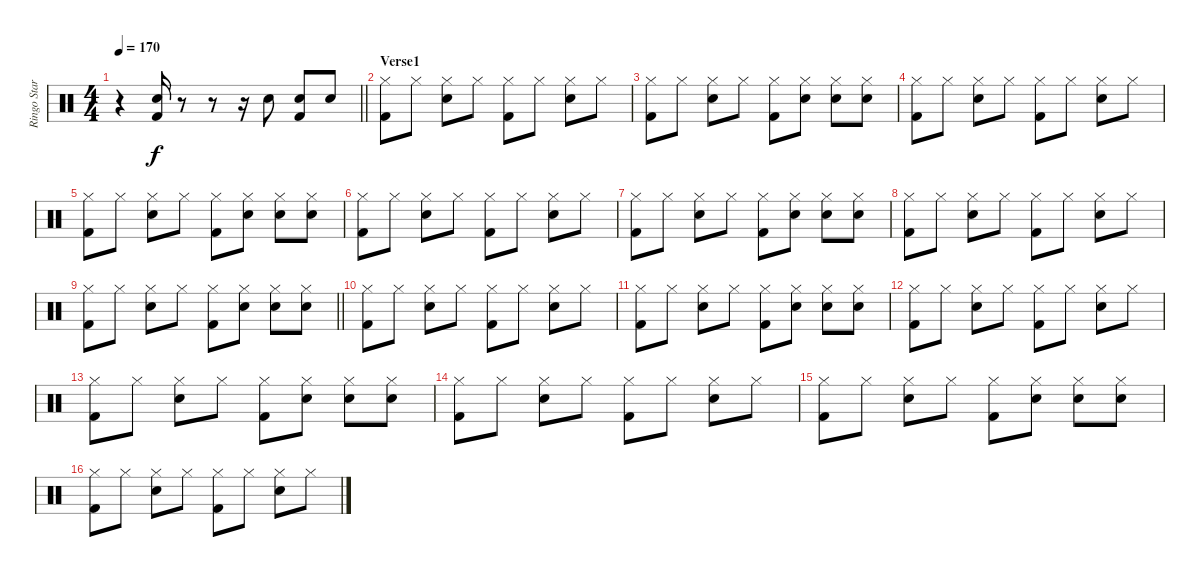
\track ("Ringo Star (Thomas)" "Ringo Star") {instrument percussion}
\staff {score}
\articulation defaults
\ts (4 4)
\tempo 170
\clef neutral
\barLineRight lightlight
\ks c
r.4{dy f} ("Snare (hit) 2" "Kick (hit) 2").16 r.8 r.8 r.16 "Snare (hit) 2".8 ("Snare (hit) 2" "Kick (hit) 2").8 "Snare (hit) 2".8 |
\section ("" "Verse1")
("Hi-Hat (closed)" "Kick (hit) 2").8 "Hi-Hat (closed)".8 ("Hi-Hat (closed)" "Snare (hit) 2").8 "Hi-Hat (closed)".8 ("Hi-Hat (closed)" "Kick (hit) 2").8 "Hi-Hat (closed)".8 ("Hi-Hat (closed)" "Snare (hit) 2").8 "Hi-Hat (closed)".8 |
("Hi-Hat (closed)" "Kick (hit) 2").8 "Hi-Hat (closed)".8 ("Hi-Hat (closed)" "Snare (hit) 2").8 "Hi-Hat (closed)".8 ("Hi-Hat (closed)" "Kick (hit) 2").8 ("Hi-Hat (closed)" "Snare (hit) 2").8 ("Hi-Hat (closed)" "Snare (hit) 2").8 ("Hi-Hat (closed)" "Snare (hit) 2").8 |
("Hi-Hat (closed)" "Kick (hit) 2").8 "Hi-Hat (closed)".8 ("Hi-Hat (closed)" "Snare (hit) 2").8 "Hi-Hat (closed)".8 ("Hi-Hat (closed)" "Kick (hit) 2").8 "Hi-Hat (closed)".8 ("Hi-Hat (closed)" "Snare (hit) 2").8 "Hi-Hat (closed)".8 |
("Hi-Hat (closed)" "Kick (hit) 2").8 "Hi-Hat (closed)".8 ("Hi-Hat (closed)" "Snare (hit) 2").8 "Hi-Hat (closed)".8 ("Hi-Hat (closed)" "Kick (hit) 2").8 ("Hi-Hat (closed)" "Snare (hit) 2").8 ("Hi-Hat (closed)" "Snare (hit) 2").8 ("Hi-Hat (closed)" "Snare (hit) 2").8 |
("Hi-Hat (closed)" "Kick (hit) 2").8 "Hi-Hat (closed)".8 ("Hi-Hat (closed)" "Snare (hit) 2").8 "Hi-Hat (closed)".8 ("Hi-Hat (closed)" "Kick (hit) 2").8 "Hi-Hat (closed)".8 ("Hi-Hat (closed)" "Snare (hit) 2").8 "Hi-Hat (closed)".8 |
("Hi-Hat (closed)" "Kick (hit) 2").8 "Hi-Hat (closed)".8 ("Hi-Hat (closed)" "Snare (hit) 2").8 "Hi-Hat (closed)".8 ("Hi-Hat (closed)" "Kick (hit) 2").8 ("Hi-Hat (closed)" "Snare (hit) 2").8 ("Hi-Hat (closed)" "Snare (hit) 2").8 ("Hi-Hat (closed)" "Snare (hit) 2").8 |
("Hi-Hat (closed)" "Kick (hit) 2").8 "Hi-Hat (closed)".8 ("Hi-Hat (closed)" "Snare (hit) 2").8 "Hi-Hat (closed)".8 ("Hi-Hat (closed)" "Kick (hit) 2").8 "Hi-Hat (closed)".8 ("Hi-Hat (closed)" "Snare (hit) 2").8 "Hi-Hat (closed)".8 |
\barLineRight lightlight
("Hi-Hat (closed)" "Kick (hit) 2").8 "Hi-Hat (closed)".8 ("Hi-Hat (closed)" "Snare (hit) 2").8 "Hi-Hat (closed)".8 ("Hi-Hat (closed)" "Kick (hit) 2").8 ("Hi-Hat (closed)" "Snare (hit) 2").8 ("Hi-Hat (closed)" "Snare (hit) 2").8 ("Hi-Hat (closed)" "Snare (hit) 2").8 |
("Hi-Hat (closed)" "Kick (hit) 2").8 "Hi-Hat (closed)".8 ("Hi-Hat (closed)" "Snare (hit) 2").8 "Hi-Hat (closed)".8 ("Hi-Hat (closed)" "Kick (hit) 2").8 "Hi-Hat (closed)".8 ("Hi-Hat (closed)" "Snare (hit) 2").8 "Hi-Hat (closed)".8 |
("Hi-Hat (closed)" "Kick (hit) 2").8 "Hi-Hat (closed)".8 ("Hi-Hat (closed)" "Snare (hit) 2").8 "Hi-Hat (closed)".8 ("Hi-Hat (closed)" "Kick (hit) 2").8 ("Hi-Hat (closed)" "Snare (hit) 2").8 ("Hi-Hat (closed)" "Snare (hit) 2").8 ("Hi-Hat (closed)" "Snare (hit) 2").8 |
("Hi-Hat (closed)" "Kick (hit) 2").8 "Hi-Hat (closed)".8 ("Hi-Hat (closed)" "Snare (hit) 2").8 "Hi-Hat (closed)".8 ("Hi-Hat (closed)" "Kick (hit) 2").8 "Hi-Hat (closed)".8 ("Hi-Hat (closed)" "Snare (hit) 2").8 "Hi-Hat (closed)".8 |
("Hi-Hat (closed)" "Kick (hit) 2").8 "Hi-Hat (closed)".8 ("Hi-Hat (closed)" "Snare (hit) 2").8 "Hi-Hat (closed)".8 ("Hi-Hat (closed)" "Kick (hit) 2").8 ("Hi-Hat (closed)" "Snare (hit) 2").8 ("Hi-Hat (closed)" "Snare (hit) 2").8 ("Hi-Hat (closed)" "Snare (hit) 2").8 |
("Hi-Hat (closed)" "Kick (hit) 2").8 "Hi-Hat (closed)".8 ("Hi-Hat (closed)" "Snare (hit) 2").8 "Hi-Hat (closed)".8 ("Hi-Hat (closed)" "Kick (hit) 2").8 "Hi-Hat (closed)".8 ("Hi-Hat (closed)" "Snare (hit) 2").8 "Hi-Hat (closed)".8 |
("Hi-Hat (closed)" "Kick (hit) 2").8 "Hi-Hat (closed)".8 ("Hi-Hat (closed)" "Snare (hit) 2").8 "Hi-Hat (closed)".8 ("Hi-Hat (closed)" "Kick (hit) 2").8 ("Hi-Hat (closed)" "Snare (hit) 2").8 ("Hi-Hat (closed)" "Snare (hit) 2").8 ("Hi-Hat (closed)" "Snare (hit) 2").8 |
("Hi-Hat (closed)" "Kick (hit) 2").8 "Hi-Hat (closed)".8 ("Hi-Hat (closed)" "Snare (hit) 2").8 "Hi-Hat (closed)".8 ("Hi-Hat (closed)" "Kick (hit) 2").8 "Hi-Hat (closed)".8 ("Hi-Hat (closed)" "Snare (hit) 2").8 "Hi-Hat (closed)".8
